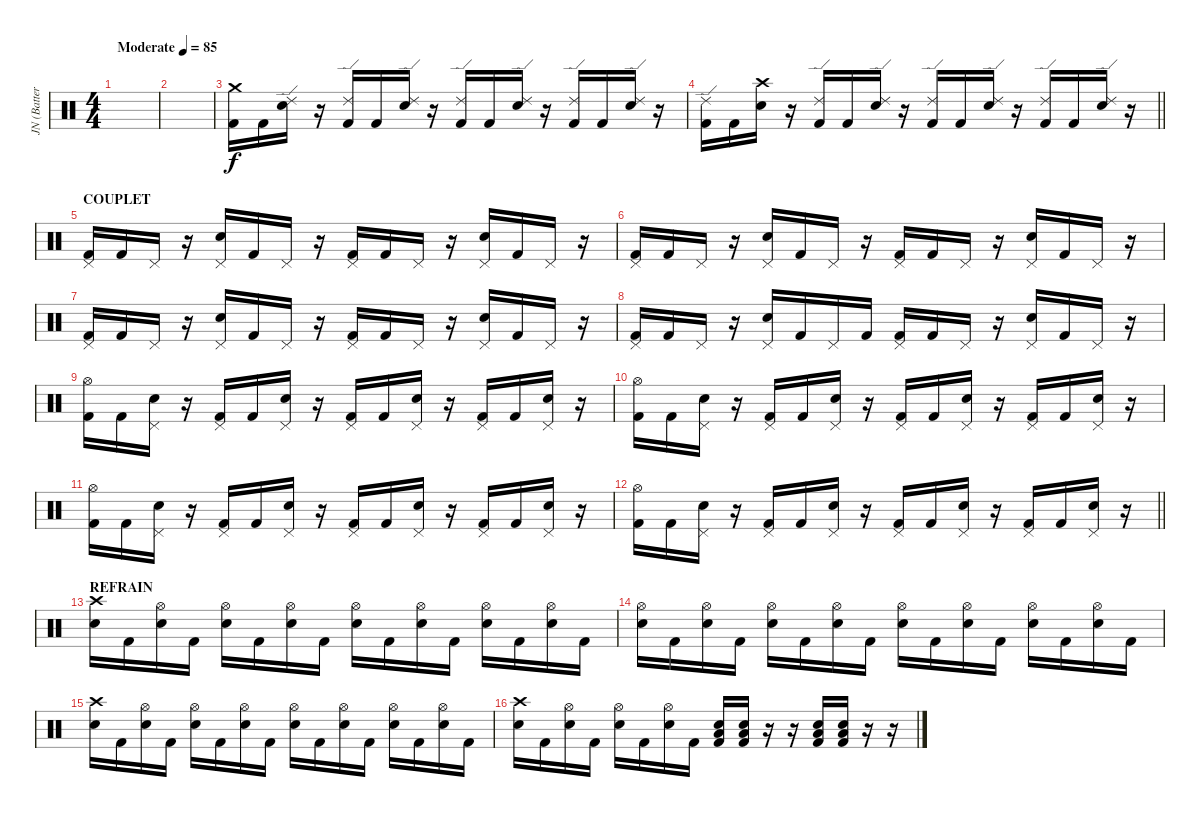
\track ("JN (Batterie)" "JN (Batter") {instrument percussion}
\staff {score}
\articulation defaults
\ts (4 4)
\tempo (85 "Moderate")
\clef neutral
\ks c
|
|
("Crash medium (hit)" "Kick (hit) 2").16 "Kick (hit) 2".16 ("Ride (edge) 2" "Electric Snare (hit)").16 r.16 ("Ride (edge) 2" "Kick (hit) 2").16 "Kick (hit) 2".16 ("Ride (edge) 2" "Electric Snare (hit)").16 r.16 ("Ride (edge) 2" "Kick (hit) 2").16 "Kick (hit) 2".16 ("Ride (edge) 2" "Electric Snare (hit)").16 r.16 ("Ride (edge) 2" "Kick (hit) 2").16 "Kick (hit) 2".16 ("Ride (edge) 2" "Electric Snare (hit)").16 r.16 |
\barLineRight lightlight
("Ride (edge) 2" "Kick (hit) 2").16 "Kick (hit) 2".16 ("Crash high (hit)" "Electric Snare (hit)").16 r.16 ("Ride (edge) 2" "Kick (hit) 2").16 "Kick (hit) 2".16 ("Ride (edge) 2" "Electric Snare (hit)").16 r.16 ("Ride (edge) 2" "Kick (hit) 2").16 "Kick (hit) 2".16 ("Ride (edge) 2" "Electric Snare (hit)").16 r.16 ("Ride (edge) 2" "Kick (hit) 2").16 "Kick (hit) 2".16 ("Ride (edge) 2" "Electric Snare (hit)").16 r.16 |
\section ("" "COUPLET")
("Pedal Hi-Hat (hit)" "Kick (hit) 2").16 "Kick (hit) 2".16 "Pedal Hi-Hat (hit)".16 r.16 ("Pedal Hi-Hat (hit)" "Electric Snare (hit)").16 "Kick (hit) 2".16 "Pedal Hi-Hat (hit)".16 r.16 ("Pedal Hi-Hat (hit)" "Kick (hit) 2").16 "Kick (hit) 2".16 "Pedal Hi-Hat (hit)".16 r.16 ("Pedal Hi-Hat (hit)" "Electric Snare (hit)").16 "Kick (hit) 2".16 "Pedal Hi-Hat (hit)".16 r.16 |
("Pedal Hi-Hat (hit)" "Kick (hit) 2").16 "Kick (hit) 2".16 "Pedal Hi-Hat (hit)".16 r.16 ("Pedal Hi-Hat (hit)" "Electric Snare (hit)").16 "Kick (hit) 2".16 "Pedal Hi-Hat (hit)".16 r.16 ("Pedal Hi-Hat (hit)" "Kick (hit) 2").16 "Kick (hit) 2".16 "Pedal Hi-Hat (hit)".16 r.16 ("Pedal Hi-Hat (hit)" "Electric Snare (hit)").16 "Kick (hit) 2".16 "Pedal Hi-Hat (hit)".16 r.16 |
("Pedal Hi-Hat (hit)" "Kick (hit) 2").16 "Kick (hit) 2".16 "Pedal Hi-Hat (hit)".16 r.16 ("Pedal Hi-Hat (hit)" "Electric Snare (hit)").16 "Kick (hit) 2".16 "Pedal Hi-Hat (hit)".16 r.16 ("Pedal Hi-Hat (hit)" "Kick (hit) 2").16 "Kick (hit) 2".16 "Pedal Hi-Hat (hit)".16 r.16 ("Pedal Hi-Hat (hit)" "Electric Snare (hit)").16 "Kick (hit) 2".16 "Pedal Hi-Hat (hit)".16 r.16 |
("Pedal Hi-Hat (hit)" "Kick (hit) 2").16 "Kick (hit) 2".16 "Pedal Hi-Hat (hit)".16 r.16 ("Pedal Hi-Hat (hit)" "Electric Snare (hit)").16 "Kick (hit) 2".16 "Pedal Hi-Hat (hit)".16 "Kick (hit) 2".16 ("Pedal Hi-Hat (hit)" "Kick (hit) 2").16 "Kick (hit) 2".16 "Pedal Hi-Hat (hit)".16 r.16 ("Pedal Hi-Hat (hit)" "Electric Snare (hit)").16 "Kick (hit) 2".16 "Pedal Hi-Hat (hit)".16 r.16 |
("Hi-Hat (open)" "Kick (hit) 2").16 "Kick (hit) 2".16 ("Pedal Hi-Hat (hit)" "Electric Snare (hit)").16 r.16 ("Pedal Hi-Hat (hit)" "Kick (hit) 2").16 "Kick (hit) 2".16 ("Pedal Hi-Hat (hit)" "Electric Snare (hit)").16 r.16 ("Pedal Hi-Hat (hit)" "Kick (hit) 2").16 "Kick (hit) 2".16 ("Pedal Hi-Hat (hit)" "Electric Snare (hit)").16 r.16 ("Pedal Hi-Hat (hit)" "Kick (hit) 2").16 "Kick (hit) 2".16 ("Pedal Hi-Hat (hit)" "Electric Snare (hit)").16 r.16 |
("Hi-Hat (open)" "Kick (hit) 2").16 "Kick (hit) 2".16 ("Pedal Hi-Hat (hit)" "Electric Snare (hit)").16 r.16 ("Pedal Hi-Hat (hit)" "Kick (hit) 2").16 "Kick (hit) 2".16 ("Pedal Hi-Hat (hit)" "Electric Snare (hit)").16 r.16 ("Pedal Hi-Hat (hit)" "Kick (hit) 2").16 "Kick (hit) 2".16 ("Pedal Hi-Hat (hit)" "Electric Snare (hit)").16 r.16 ("Pedal Hi-Hat (hit)" "Kick (hit) 2").16 "Kick (hit) 2".16 ("Pedal Hi-Hat (hit)" "Electric Snare (hit)").16 r.16 |
("Hi-Hat (open)" "Kick (hit) 2").16 "Kick (hit) 2".16 ("Pedal Hi-Hat (hit)" "Electric Snare (hit)").16 r.16 ("Pedal Hi-Hat (hit)" "Kick (hit) 2").16 "Kick (hit) 2".16 ("Pedal Hi-Hat (hit)" "Electric Snare (hit)").16 r.16 ("Pedal Hi-Hat (hit)" "Kick (hit) 2").16 "Kick (hit) 2".16 ("Pedal Hi-Hat (hit)" "Electric Snare (hit)").16 r.16 ("Pedal Hi-Hat (hit)" "Kick (hit) 2").16 "Kick (hit) 2".16 ("Pedal Hi-Hat (hit)" "Electric Snare (hit)").16 r.16 |
\barLineRight lightlight
("Hi-Hat (open)" "Kick (hit) 2").16 "Kick (hit) 2".16 ("Pedal Hi-Hat (hit)" "Electric Snare (hit)").16 r.16 ("Pedal Hi-Hat (hit)" "Kick (hit) 2").16 "Kick (hit) 2".16 ("Pedal Hi-Hat (hit)" "Electric Snare (hit)").16 r.16 ("Pedal Hi-Hat (hit)" "Kick (hit) 2").16 "Kick (hit) 2".16 ("Pedal Hi-Hat (hit)" "Electric Snare (hit)").16 r.16 ("Pedal Hi-Hat (hit)" "Kick (hit) 2").16 "Kick (hit) 2".16 ("Pedal Hi-Hat (hit)" "Electric Snare (hit)").16 r.16 |
\section ("" "REFRAIN")
("Crash high (hit)" "Electric Snare (hit)").16 "Kick (hit) 2".16 ("Hi-Hat (open)" "Electric Snare (hit)").16 "Kick (hit) 2".16 ("Hi-Hat (open)" "Electric Snare (hit)").16 "Kick (hit) 2".16 ("Hi-Hat (open)" "Electric Snare (hit)").16 "Kick (hit) 2".16 ("Hi-Hat (open)" "Electric Snare (hit)").16 "Kick (hit) 2".16 ("Hi-Hat (open)" "Electric Snare (hit)").16 "Kick (hit) 2".16 ("Hi-Hat (open)" "Electric Snare (hit)").16 "Kick (hit) 2".16 ("Hi-Hat (open)" "Electric Snare (hit)").16 "Kick (hit) 2".16 |
("Hi-Hat (open)" "Electric Snare (hit)").16 "Kick (hit) 2".16 ("Hi-Hat (open)" "Electric Snare (hit)").16 "Kick (hit) 2".16 ("Hi-Hat (open)" "Electric Snare (hit)").16 "Kick (hit) 2".16 ("Hi-Hat (open)" "Electric Snare (hit)").16 "Kick (hit) 2".16 ("Hi-Hat (open)" "Electric Snare (hit)").16 "Kick (hit) 2".16 ("Hi-Hat (open)" "Electric Snare (hit)").16 "Kick (hit) 2".16 ("Hi-Hat (open)" "Electric Snare (hit)").16 "Kick (hit) 2".16 ("Hi-Hat (open)" "Electric Snare (hit)").16 "Kick (hit) 2".16 |
("Crash high (hit)" "Electric Snare (hit)").16 "Kick (hit) 2".16 ("Hi-Hat (open)" "Electric Snare (hit)").16 "Kick (hit) 2".16 ("Hi-Hat (open)" "Electric Snare (hit)").16 "Kick (hit) 2".16 ("Hi-Hat (open)" "Electric Snare (hit)").16 "Kick (hit) 2".16 ("Hi-Hat (open)" "Electric Snare (hit)").16 "Kick (hit) 2".16 ("Hi-Hat (open)" "Electric Snare (hit)").16 "Kick (hit) 2".16 ("Hi-Hat (open)" "Electric Snare (hit)").16 "Kick (hit) 2".16 ("Hi-Hat (open)" "Electric Snare (hit)").16 "Kick (hit) 2".16 |
("Crash high (hit)" "Electric Snare (hit)").16 "Kick (hit) 2".16 ("Hi-Hat (open)" "Electric Snare (hit)").16 "Kick (hit) 2".16 ("Hi-Hat (open)" "Electric Snare (hit)").16 "Kick (hit) 2".16 ("Hi-Hat (open)" "Electric Snare (hit)").16 "Kick (hit) 2".16 ("Electric Snare (hit)" "Kick (hit) 2" "Low Tom (hit)").16 ("Electric Snare (hit)" "Kick (hit) 2" "Low Tom (hit)").16 r.16 r.16 ("Electric Snare (hit)" "Kick (hit) 2" "Low Tom (hit)").16 ("Electric Snare (hit)" "Kick (hit) 2" "Low Tom (hit)").16 r.16 r.16
